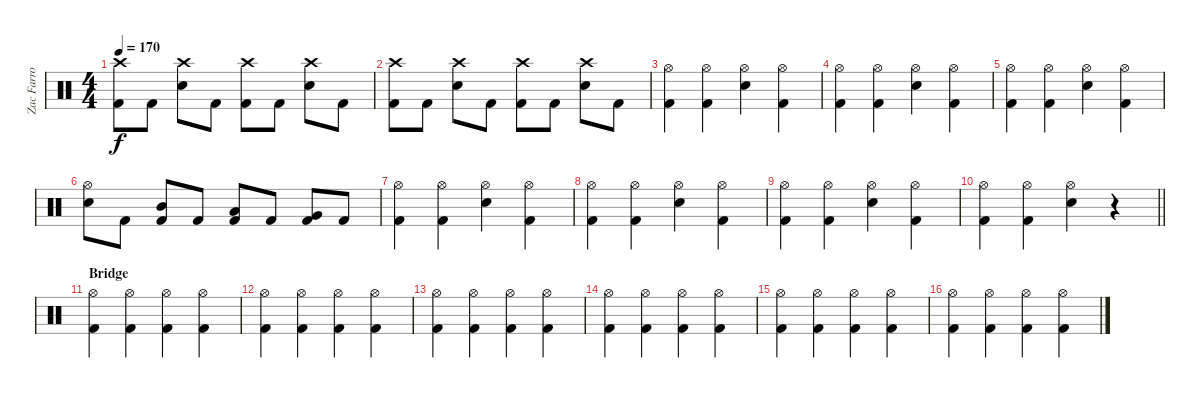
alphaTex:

\track ("Zac Farro (Percussion)" "Zac Farro ") {instrument percussion}
\staff {score}
\articulation defaults
\ts (4 4)
\tempo 170
\clef neutral
\ks c
("Crash high (hit)" "Kick (hit) 2").8{dy f} "Kick (hit) 2".8 ("Crash high (hit)" "Electric Snare (hit)").8 "Kick (hit) 2".8 ("Crash high (hit)" "Kick (hit) 2").8 "Kick (hit) 2".8 ("Crash high (hit)" "Electric Snare (hit)").8 "Kick (hit) 2".8 |
("Crash high (hit)" "Kick (hit) 2").8 "Kick (hit) 2".8 ("Crash high (hit)" "Electric Snare (hit)").8 "Kick (hit) 2".8 ("Crash high (hit)" "Kick (hit) 2").8 "Kick (hit) 2".8 ("Crash high (hit)" "Electric Snare (hit)").8 "Kick (hit) 2".8 |
("Hi-Hat (open)" "Kick (hit) 2").4 ("Hi-Hat (open)" "Kick (hit) 2").4 ("Hi-Hat (open)" "Electric Snare (hit)").4 ("Hi-Hat (open)" "Kick (hit) 2").4 |
("Hi-Hat (open)" "Kick (hit) 2").4 ("Hi-Hat (open)" "Kick (hit) 2").4 ("Hi-Hat (open)" "Electric Snare (hit)").4 ("Hi-Hat (open)" "Kick (hit) 2").4 |
("Hi-Hat (open)" "Kick (hit) 2").4 ("Hi-Hat (open)" "Kick (hit) 2").4 ("Hi-Hat (open)" "Electric Snare (hit)").4 ("Hi-Hat (open)" "Kick (hit) 2").4 |
("Hi-Hat (open)" "Electric Snare (hit)").8 "Kick (hit) 2".8 ("Mid Tom (hit)" "Kick (hit) 2").8 "Kick (hit) 2".8 ("Low Tom (hit)" "Kick (hit) 2").8 "Kick (hit) 2".8 ("Very Low Tom (hit)" "Kick (hit) 2").8 "Kick (hit) 2".8 |
("Hi-Hat (open)" "Kick (hit) 2").4 ("Hi-Hat (open)" "Kick (hit) 2").4 ("Hi-Hat (open)" "Electric Snare (hit)").4 ("Hi-Hat (open)" "Kick (hit) 2").4 |
("Hi-Hat (open)" "Kick (hit) 2").4 ("Hi-Hat (open)" "Kick (hit) 2").4 ("Hi-Hat (open)" "Electric Snare (hit)").4 ("Hi-Hat (open)" "Kick (hit) 2").4 |
("Hi-Hat (open)" "Kick (hit) 2").4 ("Hi-Hat (open)" "Kick (hit) 2").4 ("Hi-Hat (open)" "Electric Snare (hit)").4 ("Hi-Hat (open)" "Kick (hit) 2").4 |
\barLineRight lightlight
("Hi-Hat (open)" "Kick (hit) 2").4 ("Hi-Hat (open)" "Kick (hit) 2").4 ("Hi-Hat (open)" "Electric Snare (hit)").4 r.4 |
\section ("" "Bridge")
("Hi-Hat (open)" "Kick (hit) 2").4 ("Hi-Hat (open)" "Kick (hit) 2").4 ("Hi-Hat (open)" "Kick (hit) 2").4 ("Hi-Hat (open)" "Kick (hit) 2").4 |
("Hi-Hat (open)" "Kick (hit) 2").4 ("Hi-Hat (open)" "Kick (hit) 2").4 ("Hi-Hat (open)" "Kick (hit) 2").4 ("Hi-Hat (open)" "Kick (hit) 2").4 |
("Hi-Hat (open)" "Kick (hit) 2").4 ("Hi-Hat (open)" "Kick (hit) 2").4 ("Hi-Hat (open)" "Kick (hit) 2").4 ("Hi-Hat (open)" "Kick (hit) 2").4 |
("Hi-Hat (open)" "Kick (hit) 2").4 ("Hi-Hat (open)" "Kick (hit) 2").4 ("Hi-Hat (open)" "Kick (hit) 2").4 ("Hi-Hat (open)" "Kick (hit) 2").4 |
("Hi-Hat (open)" "Kick (hit) 2").4 ("Hi-Hat (open)" "Kick (hit) 2").4 ("Hi-Hat (open)" "Kick (hit) 2").4 ("Hi-Hat (open)" "Kick (hit) 2").4 |
("Hi-Hat (open)" "Kick (hit) 2").4 ("Hi-Hat (open)" "Kick (hit) 2").4 ("Hi-Hat (open)" "Kick (hit) 2").4 ("Hi-Hat (open)" "Kick (hit) 2").4
